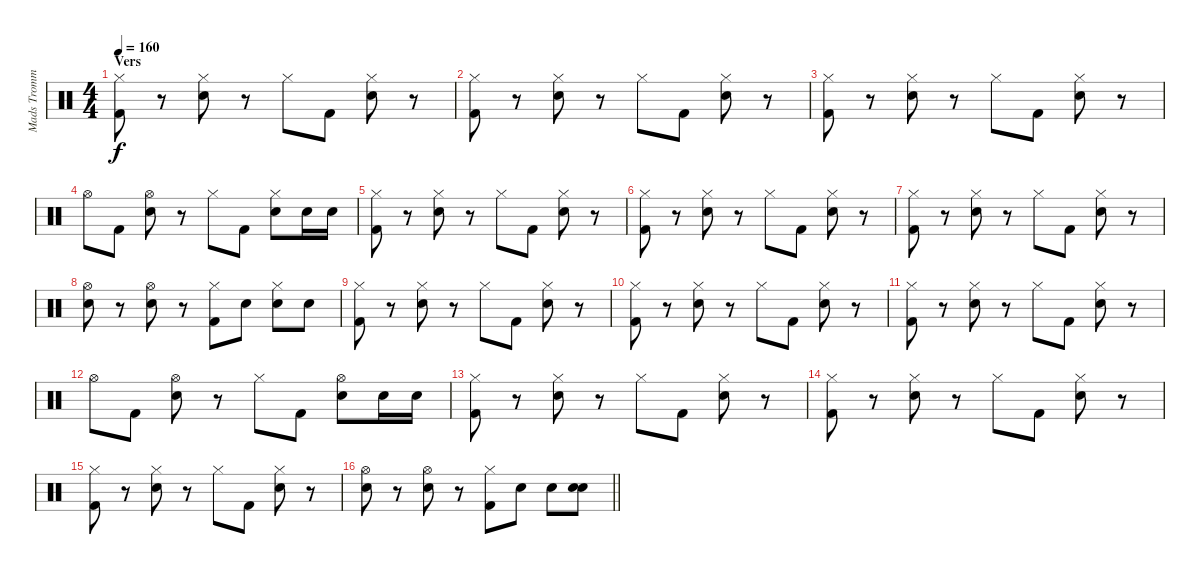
\track ("Mads Trommer" "Mads Tromm") {instrument percussion}
\staff {score}
\articulation defaults
\ts (4 4)
\section ("" "Vers")
\tempo 160
\clef neutral
\ks c
("Hi-Hat (closed)" "Kick (hit) 2").8{dy f} r.8 ("Hi-Hat (closed)" "Electric Snare (hit)").8 r.8 "Hi-Hat (closed)".8 "Kick (hit) 2".8 ("Hi-Hat (closed)" "Electric Snare (hit)").8 r.8 |
("Hi-Hat (closed)" "Kick (hit) 2").8 r.8 ("Hi-Hat (closed)" "Electric Snare (hit)").8 r.8 "Hi-Hat (closed)".8 "Kick (hit) 2".8 ("Hi-Hat (closed)" "Electric Snare (hit)").8 r.8 |
("Hi-Hat (closed)" "Kick (hit) 2").8 r.8 ("Hi-Hat (closed)" "Electric Snare (hit)").8 r.8 "Hi-Hat (closed)".8 "Kick (hit) 2".8 ("Hi-Hat (closed)" "Electric Snare (hit)").8 r.8 |
"Hi-Hat (open)".8 "Kick (hit) 2".8 ("Hi-Hat (open)" "Electric Snare (hit)").8 r.8 "Hi-Hat (closed)".8 "Kick (hit) 2".8 ("Hi-Hat (closed)" "Electric Snare (hit)").8 "Electric Snare (hit)".16 "Electric Snare (hit)".16 |
("Hi-Hat (closed)" "Kick (hit) 2").8 r.8 ("Hi-Hat (closed)" "Electric Snare (hit)").8 r.8 "Hi-Hat (closed)".8 "Kick (hit) 2".8 ("Hi-Hat (closed)" "Electric Snare (hit)").8 r.8 |
("Hi-Hat (closed)" "Kick (hit) 2").8 r.8 ("Hi-Hat (closed)" "Electric Snare (hit)").8 r.8 "Hi-Hat (closed)".8 "Kick (hit) 2".8 ("Hi-Hat (closed)" "Electric Snare (hit)").8 r.8 |
("Hi-Hat (closed)" "Kick (hit) 2").8 r.8 ("Hi-Hat (closed)" "Electric Snare (hit)").8 r.8 "Hi-Hat (closed)".8 "Kick (hit) 2".8 ("Hi-Hat (closed)" "Electric Snare (hit)").8 r.8 |
("Hi-Hat (open)" "Electric Snare (hit)").8 r.8 ("Hi-Hat (open)" "Electric Snare (hit)").8 r.8 ("Hi-Hat (closed)" "Kick (hit) 2").8 "Electric Snare (hit)".8 ("Hi-Hat (closed)" "Electric Snare (hit)").8 "Electric Snare (hit)".8 |
("Hi-Hat (closed)" "Kick (hit) 2").8 r.8 ("Hi-Hat (closed)" "Electric Snare (hit)").8 r.8 "Hi-Hat (closed)".8 "Kick (hit) 2".8 ("Hi-Hat (closed)" "Electric Snare (hit)").8 r.8 |
("Hi-Hat (closed)" "Kick (hit) 2").8 r.8 ("Hi-Hat (closed)" "Electric Snare (hit)").8 r.8 "Hi-Hat (closed)".8 "Kick (hit) 2".8 ("Hi-Hat (closed)" "Electric Snare (hit)").8 r.8 |
("Hi-Hat (closed)" "Kick (hit) 2").8 r.8 ("Hi-Hat (closed)" "Electric Snare (hit)").8 r.8 "Hi-Hat (closed)".8 "Kick (hit) 2".8 ("Hi-Hat (closed)" "Electric Snare (hit)").8 r.8 |
"Hi-Hat (open)".8 "Kick (hit) 2".8 ("Hi-Hat (open)" "Electric Snare (hit)").8 r.8 "Hi-Hat (closed)".8 "Kick (hit) 2".8 ("Hi-Hat (open)" "Electric Snare (hit)").8 "Electric Snare (hit)".16 "Electric Snare (hit)".16 |
("Hi-Hat (closed)" "Kick (hit) 2").8 r.8 ("Hi-Hat (closed)" "Electric Snare (hit)").8 r.8 "Hi-Hat (closed)".8 "Kick (hit) 2".8 ("Hi-Hat (closed)" "Electric Snare (hit)").8 r.8 |
("Hi-Hat (closed)" "Kick (hit) 2").8 r.8 ("Hi-Hat (closed)" "Electric Snare (hit)").8 r.8 "Hi-Hat (closed)".8 "Kick (hit) 2".8 ("Hi-Hat (closed)" "Electric Snare (hit)").8 r.8 |
("Hi-Hat (closed)" "Kick (hit) 2").8 r.8 ("Hi-Hat (closed)" "Electric Snare (hit)").8 r.8 "Hi-Hat (closed)".8 "Kick (hit) 2".8 ("Hi-Hat (closed)" "Electric Snare (hit)").8 r.8 |
\barLineRight lightlight
("Hi-Hat (open)" "Electric Snare (hit)").8 r.8 ("Hi-Hat (open)" "Electric Snare (hit)").8 r.8 ("Hi-Hat (closed)" "Kick (hit) 2").8 "Electric Snare (hit)".8 "Electric Snare (hit)".8 ("Electric Snare (hit)" "Electric Snare (hit)").8
